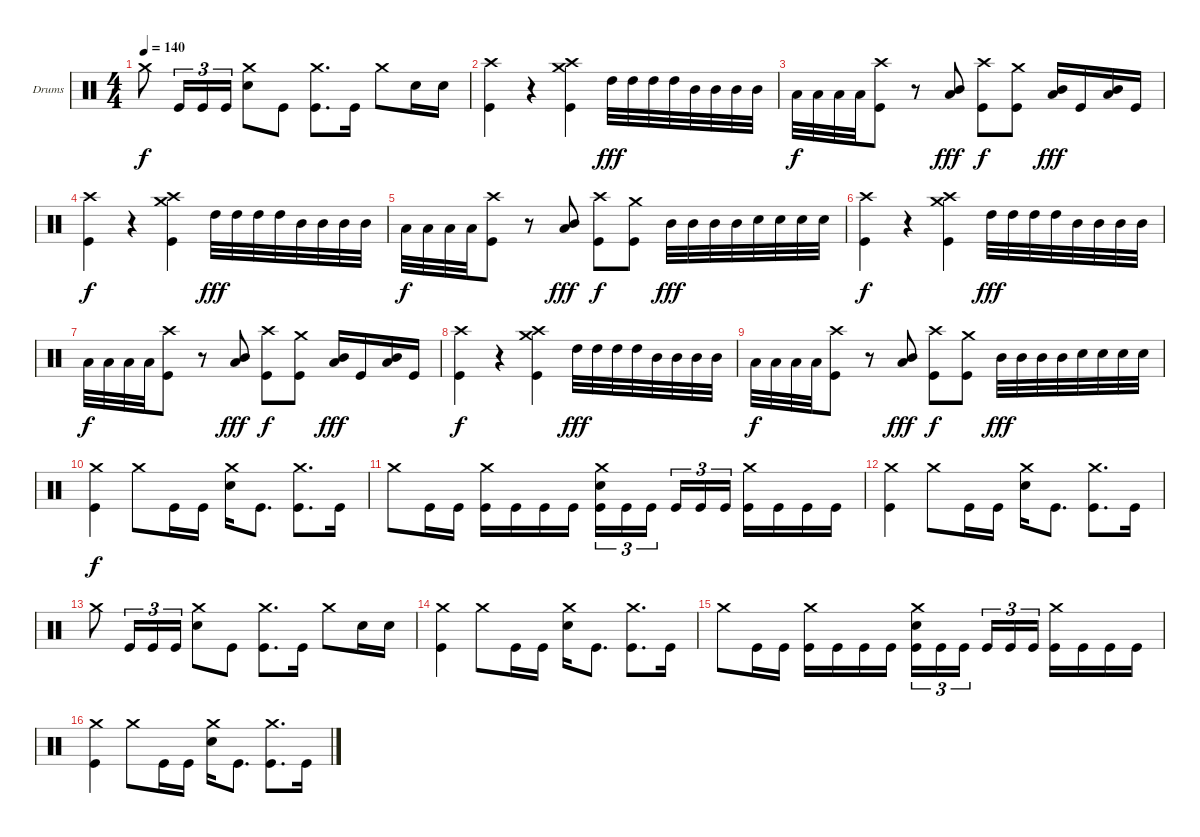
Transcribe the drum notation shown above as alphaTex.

\defaultSystemsLayout 4
\bracketExtendMode groupsimilarinstruments
\firstSystemTrackNameOrientation horizontal
\otherSystemsTrackNameOrientation horizontal
\track ("Drumkit" "Drums") {instrument percussion}
\staff {score}
\articulation defaults
\ts (4 4)
\tempo 140
\clef neutral
\ks c "Crash medium (hit)".8{dy f} "Kick (hit)".16{tu (3 2)} "Kick (hit)".16{tu (3 2)} "Kick (hit)".16{tu (3 2)}
("Crash medium (hit)" "Snare (hit) 2").8 "Kick (hit)".8 ("Crash medium (hit)" "Kick (hit)").8{d} "Kick (hit)".16 "Crash medium (hit)".8 "Snare (hit) 2".16 "Snare (hit) 2".16 |
("Crash high (hit)" "Kick (hit)").4 r.4 ("Crash high (hit)" "Crash medium (hit)" "Kick (hit)").4 "High Tom (hit)".32{dy fff} "High Tom (hit)".32 "High Tom (hit)".32 "High Tom (hit)".32 "Mid Tom (hit)".32 "Mid Tom (hit)".32 "Mid Tom (hit)".32 "Mid Tom (hit)".32 |
"Low Tom (hit)".32{dy f} "Low Tom (hit)".32 "Low Tom (hit)".32 "Low Tom (hit)".32 ("Crash high (hit)" "Kick (hit)").8 r.8 ("Mid Tom (hit)" "Low Tom (hit)").8{dy fff} ("Crash high (hit)" "Kick (hit)").8{dy f} ("Crash medium (hit)" "Kick (hit)").8 ("Mid Tom (hit)" "Low Tom (hit)").16{dy fff} "Kick (hit)".16 ("Mid Tom (hit)" "Low Tom (hit)").16 "Kick (hit)".16 |
("Crash high (hit)" "Kick (hit)").4{dy f} r.4 ("Crash high (hit)" "Crash medium (hit)" "Kick (hit)").4 "High Tom (hit)".32{dy fff} "High Tom (hit)".32 "High Tom (hit)".32 "High Tom (hit)".32 "Mid Tom (hit)".32 "Mid Tom (hit)".32 "Mid Tom (hit)".32 "Mid Tom (hit)".32 |
"Low Tom (hit)".32{dy f} "Low Tom (hit)".32 "Low Tom (hit)".32 "Low Tom (hit)".32 ("Crash high (hit)" "Kick (hit)").8 r.8 ("Mid Tom (hit)" "Low Tom (hit)").8{dy fff} ("Crash high (hit)" "Kick (hit)").8{dy f} ("Crash medium (hit)" "Kick (hit)").8 "Mid Tom (hit)".32{dy fff} "Mid Tom (hit)".32 "Mid Tom (hit)".32 "Mid Tom (hit)".32 "Snare (hit) 2".32 "Snare (hit) 2".32 "Snare (hit) 2".32 "Snare (hit) 2".32 |
("Crash high (hit)" "Kick (hit)").4{dy f} r.4 ("Crash high (hit)" "Crash medium (hit)" "Kick (hit)").4 "High Tom (hit)".32{dy fff} "High Tom (hit)".32 "High Tom (hit)".32 "High Tom (hit)".32 "Mid Tom (hit)".32 "Mid Tom (hit)".32 "Mid Tom (hit)".32 "Mid Tom (hit)".32 |
"Low Tom (hit)".32{dy f} "Low Tom (hit)".32 "Low Tom (hit)".32 "Low Tom (hit)".32 ("Crash high (hit)" "Kick (hit)").8 r.8 ("Mid Tom (hit)" "Low Tom (hit)").8{dy fff} ("Crash high (hit)" "Kick (hit)").8{dy f} ("Crash medium (hit)" "Kick (hit)").8 ("Mid Tom (hit)" "Low Tom (hit)").16{dy fff} "Kick (hit)".16 ("Mid Tom (hit)" "Low Tom (hit)").16 "Kick (hit)".16 |
("Crash high (hit)" "Kick (hit)").4{dy f} r.4 ("Crash high (hit)" "Crash medium (hit)" "Kick (hit)").4 "High Tom (hit)".32{dy fff} "High Tom (hit)".32 "High Tom (hit)".32 "High Tom (hit)".32 "Mid Tom (hit)".32 "Mid Tom (hit)".32 "Mid Tom (hit)".32 "Mid Tom (hit)".32 |
"Low Tom (hit)".32{dy f} "Low Tom (hit)".32 "Low Tom (hit)".32 "Low Tom (hit)".32 ("Crash high (hit)" "Kick (hit)").8 r.8 ("Mid Tom (hit)" "Low Tom (hit)").8{dy fff} ("Crash high (hit)" "Kick (hit)").8{dy f} ("Crash medium (hit)" "Kick (hit)").8 "Mid Tom (hit)".32{dy fff} "Mid Tom (hit)".32 "Mid Tom (hit)".32 "Mid Tom (hit)".32 "Snare (hit) 2".32 "Snare (hit) 2".32 "Snare (hit) 2".32 "Snare (hit) 2".32 |
("Crash medium (hit)" "Kick (hit)").4{dy f} "Crash medium (hit)".8 "Kick (hit)".16 "Kick (hit)".16 ("Crash medium (hit)" "Snare (hit) 2").16 "Kick (hit)".8{d} ("Crash medium (hit)" "Kick (hit)").8{d} "Kick (hit)".16 |
"Crash medium (hit)".8 "Kick (hit)".16 "Kick (hit)".16 ("Crash medium (hit)" "Kick (hit)").16 "Kick (hit)".16 "Kick (hit)".16 "Kick (hit)".16 ("Crash medium (hit)" "Snare (hit) 2" "Kick (hit)").16{tu (3 2)} "Kick (hit)".16{tu (3 2)} "Kick (hit)".16{tu (3 2)} "Kick (hit)".16{tu (3 2)} "Kick (hit)".16{tu (3 2)} "Kick (hit)".16{tu (3 2)} ("Crash medium (hit)" "Kick (hit)").16 "Kick (hit)".16 "Kick (hit)".16 "Kick (hit)".16 |
("Crash medium (hit)" "Kick (hit)").4 "Crash medium (hit)".8 "Kick (hit)".16 "Kick (hit)".16 ("Crash medium (hit)" "Snare (hit) 2").16 "Kick (hit)".8{d} ("Crash medium (hit)" "Kick (hit)").8{d} "Kick (hit)".16 |
"Crash medium (hit)".8 "Kick (hit)".16{tu (3 2)} "Kick (hit)".16{tu (3 2)} "Kick (hit)".16{tu (3 2)} ("Crash medium (hit)" "Snare (hit) 2").8 "Kick (hit)".8 ("Crash medium (hit)" "Kick (hit)").8{d} "Kick (hit)".16 "Crash medium (hit)".8 "Snare (hit) 2".16 "Snare (hit) 2".16 |
("Crash medium (hit)" "Kick (hit)").4 "Crash medium (hit)".8 "Kick (hit)".16 "Kick (hit)".16 ("Crash medium (hit)" "Snare (hit) 2").16 "Kick (hit)".8{d} ("Crash medium (hit)" "Kick (hit)").8{d} "Kick (hit)".16 |
"Crash medium (hit)".8 "Kick (hit)".16 "Kick (hit)".16 ("Crash medium (hit)" "Kick (hit)").16 "Kick (hit)".16 "Kick (hit)".16 "Kick (hit)".16 ("Crash medium (hit)" "Snare (hit) 2" "Kick (hit)").16{tu (3 2)} "Kick (hit)".16{tu (3 2)} "Kick (hit)".16{tu (3 2)} "Kick (hit)".16{tu (3 2)} "Kick (hit)".16{tu (3 2)} "Kick (hit)".16{tu (3 2)} ("Crash medium (hit)" "Kick (hit)").16 "Kick (hit)".16 "Kick (hit)".16 "Kick (hit)".16 |
("Crash medium (hit)" "Kick (hit)").4 "Crash medium (hit)".8 "Kick (hit)".16 "Kick (hit)".16 ("Crash medium (hit)" "Snare (hit) 2").16 "Kick (hit)".8{d} ("Crash medium (hit)" "Kick (hit)").8{d} "Kick (hit)".16
